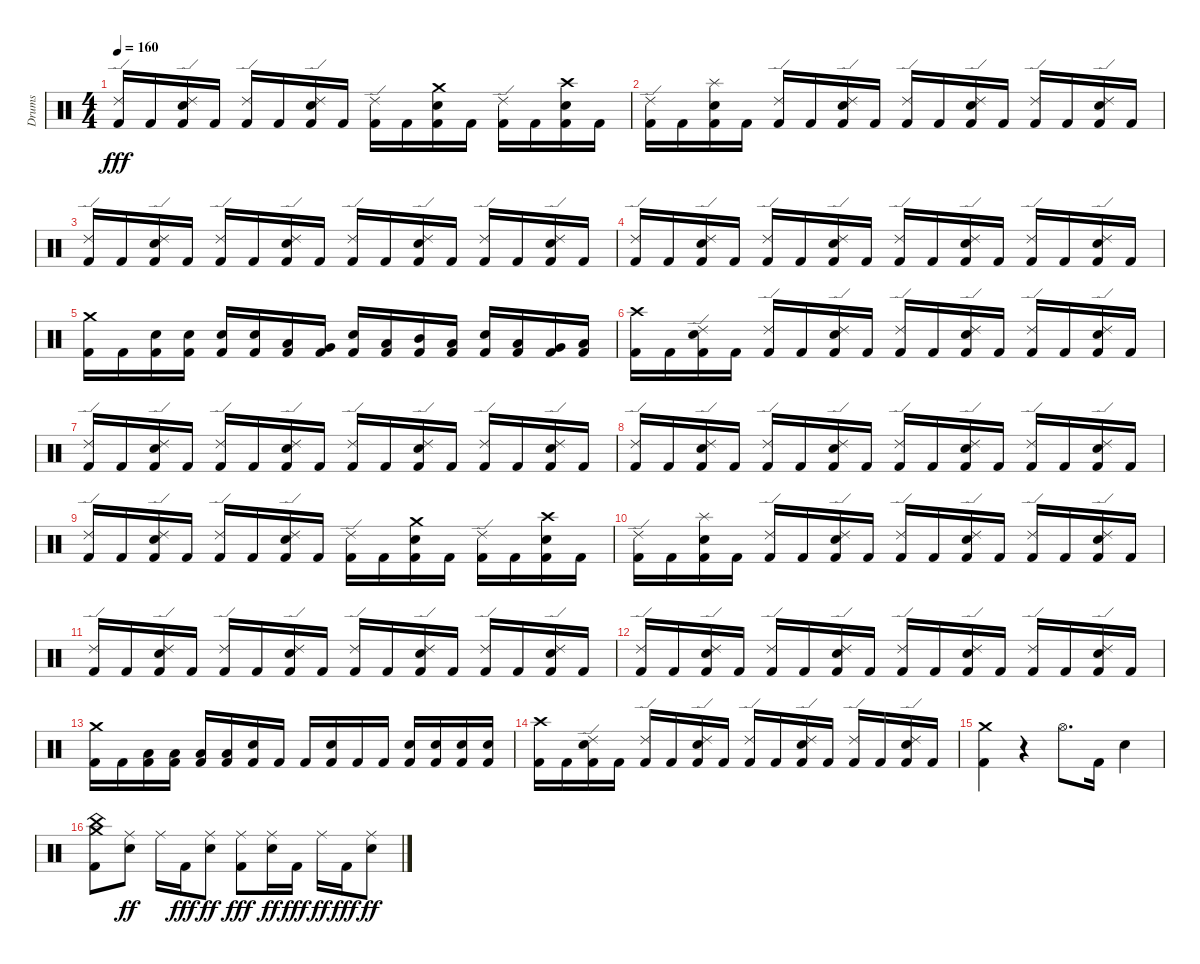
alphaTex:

\track ("Drums" "Drums") {instrument percussion}
\staff {score}
\articulation defaults
\ts (4 4)
\tempo 160
\clef neutral
\ks c
("Ride (edge) 2" "Kick (hit) 2").16{dy fff} "Kick (hit) 2".16 ("Ride (edge) 2" "Electric Snare (hit)" "Kick (hit) 2").16 "Kick (hit) 2".16 ("Ride (edge) 2" "Kick (hit) 2").16 "Kick (hit) 2".16 ("Ride (edge) 2" "Electric Snare (hit)" "Kick (hit) 2").16 "Kick (hit) 2".16 ("Ride (edge) 2" "Kick (hit) 2").16 "Kick (hit) 2".16 ("Crash medium (hit)" "Electric Snare (hit)" "Kick (hit) 2").16 "Kick (hit) 2".16 ("Ride (edge) 2" "Kick (hit) 2").16 "Kick (hit) 2".16 ("Crash high (hit)" "Electric Snare (hit)" "Kick (hit) 2").16 "Kick (hit) 2".16 |
("Ride (edge) 2" "Kick (hit) 2").16 "Kick (hit) 2".16 ("Splash (hit)" "Electric Snare (hit)" "Kick (hit) 2").16 "Kick (hit) 2".16 ("Ride (edge) 2" "Kick (hit) 2").16 "Kick (hit) 2".16 ("Ride (edge) 2" "Electric Snare (hit)" "Kick (hit) 2").16 "Kick (hit) 2".16 ("Ride (edge) 2" "Kick (hit) 2").16 "Kick (hit) 2".16 ("Ride (edge) 2" "Electric Snare (hit)" "Kick (hit) 2").16 "Kick (hit) 2".16 ("Ride (edge) 2" "Kick (hit) 2").16 "Kick (hit) 2".16 ("Ride (edge) 2" "Electric Snare (hit)" "Kick (hit) 2").16 "Kick (hit) 2".16 |
("Ride (edge) 2" "Kick (hit) 2").16 "Kick (hit) 2".16 ("Ride (edge) 2" "Electric Snare (hit)" "Kick (hit) 2").16 "Kick (hit) 2".16 ("Ride (edge) 2" "Kick (hit) 2").16 "Kick (hit) 2".16 ("Ride (edge) 2" "Electric Snare (hit)" "Kick (hit) 2").16 "Kick (hit) 2".16 ("Ride (edge) 2" "Kick (hit) 2").16 "Kick (hit) 2".16 ("Ride (edge) 2" "Electric Snare (hit)" "Kick (hit) 2").16 "Kick (hit) 2".16 ("Ride (edge) 2" "Kick (hit) 2").16 "Kick (hit) 2".16 ("Ride (edge) 2" "Electric Snare (hit)" "Kick (hit) 2").16 "Kick (hit) 2".16 |
("Ride (edge) 2" "Kick (hit) 2").16 "Kick (hit) 2".16 ("Ride (edge) 2" "Electric Snare (hit)" "Kick (hit) 2").16 "Kick (hit) 2".16 ("Ride (edge) 2" "Kick (hit) 2").16 "Kick (hit) 2".16 ("Ride (edge) 2" "Electric Snare (hit)" "Kick (hit) 2").16 "Kick (hit) 2".16 ("Ride (edge) 2" "Kick (hit) 2").16 "Kick (hit) 2".16 ("Ride (edge) 2" "Electric Snare (hit)" "Kick (hit) 2").16 "Kick (hit) 2".16 ("Ride (edge) 2" "Kick (hit) 2").16 "Kick (hit) 2".16 ("Ride (edge) 2" "Electric Snare (hit)" "Kick (hit) 2").16 "Kick (hit) 2".16 |
("Crash medium (hit)" "Kick (hit) 2").16 "Kick (hit) 2".16 ("Electric Snare (hit)" "Kick (hit) 2").16 ("Electric Snare (hit)" "Kick (hit) 2").16 ("Electric Snare (hit)" "Kick (hit) 2").16 ("Electric Snare (hit)" "Kick (hit) 2").16 ("Low Tom (hit)" "Kick (hit) 2").16 ("Very Low Tom (hit)" "Kick (hit) 2").16 ("Electric Snare (hit)" "Kick (hit) 2").16 ("Low Tom (hit)" "Kick (hit) 2").16 ("Mid Tom (hit)" "Kick (hit) 2").16 ("Low Tom (hit)" "Kick (hit) 2").16 ("Electric Snare (hit)" "Kick (hit) 2").16 ("Low Tom (hit)" "Kick (hit) 2").16 ("Very Low Tom (hit)" "Kick (hit) 2").16 ("Low Floor Tom (hit)" "Kick (hit) 2").16 |
("Crash high (hit)" "Kick (hit) 2").16 "Kick (hit) 2".16 ("Ride (edge) 2" "Electric Snare (hit)" "Kick (hit) 2").16 "Kick (hit) 2".16 ("Ride (edge) 2" "Kick (hit) 2").16 "Kick (hit) 2".16 ("Ride (edge) 2" "Electric Snare (hit)" "Kick (hit) 2").16 "Kick (hit) 2".16 ("Ride (edge) 2" "Kick (hit) 2").16 "Kick (hit) 2".16 ("Ride (edge) 2" "Electric Snare (hit)" "Kick (hit) 2").16 "Kick (hit) 2".16 ("Ride (edge) 2" "Kick (hit) 2").16 "Kick (hit) 2".16 ("Ride (edge) 2" "Electric Snare (hit)" "Kick (hit) 2").16 "Kick (hit) 2".16 |
("Ride (edge) 2" "Kick (hit) 2").16 "Kick (hit) 2".16 ("Ride (edge) 2" "Electric Snare (hit)" "Kick (hit) 2").16 "Kick (hit) 2".16 ("Ride (edge) 2" "Kick (hit) 2").16 "Kick (hit) 2".16 ("Ride (edge) 2" "Electric Snare (hit)" "Kick (hit) 2").16 "Kick (hit) 2".16 ("Ride (edge) 2" "Kick (hit) 2").16 "Kick (hit) 2".16 ("Ride (edge) 2" "Electric Snare (hit)" "Kick (hit) 2").16 "Kick (hit) 2".16 ("Ride (edge) 2" "Kick (hit) 2").16 "Kick (hit) 2".16 ("Ride (edge) 2" "Electric Snare (hit)" "Kick (hit) 2").16 "Kick (hit) 2".16 |
("Ride (edge) 2" "Kick (hit) 2").16 "Kick (hit) 2".16 ("Ride (edge) 2" "Electric Snare (hit)" "Kick (hit) 2").16 "Kick (hit) 2".16 ("Ride (edge) 2" "Kick (hit) 2").16 "Kick (hit) 2".16 ("Ride (edge) 2" "Electric Snare (hit)" "Kick (hit) 2").16 "Kick (hit) 2".16 ("Ride (edge) 2" "Kick (hit) 2").16 "Kick (hit) 2".16 ("Ride (edge) 2" "Electric Snare (hit)" "Kick (hit) 2").16 "Kick (hit) 2".16 ("Ride (edge) 2" "Kick (hit) 2").16 "Kick (hit) 2".16 ("Ride (edge) 2" "Electric Snare (hit)" "Kick (hit) 2").16 "Kick (hit) 2".16 |
("Ride (edge) 2" "Kick (hit) 2").16 "Kick (hit) 2".16 ("Ride (edge) 2" "Electric Snare (hit)" "Kick (hit) 2").16 "Kick (hit) 2".16 ("Ride (edge) 2" "Kick (hit) 2").16 "Kick (hit) 2".16 ("Ride (edge) 2" "Electric Snare (hit)" "Kick (hit) 2").16 "Kick (hit) 2".16 ("Ride (edge) 2" "Kick (hit) 2").16 "Kick (hit) 2".16 ("Crash medium (hit)" "Electric Snare (hit)" "Kick (hit) 2").16 "Kick (hit) 2".16 ("Ride (edge) 2" "Kick (hit) 2").16 "Kick (hit) 2".16 ("Crash high (hit)" "Electric Snare (hit)" "Kick (hit) 2").16 "Kick (hit) 2".16 |
("Ride (edge) 2" "Kick (hit) 2").16 "Kick (hit) 2".16 ("Splash (hit)" "Electric Snare (hit)" "Kick (hit) 2").16 "Kick (hit) 2".16 ("Ride (edge) 2" "Kick (hit) 2").16 "Kick (hit) 2".16 ("Ride (edge) 2" "Electric Snare (hit)" "Kick (hit) 2").16 "Kick (hit) 2".16 ("Ride (edge) 2" "Kick (hit) 2").16 "Kick (hit) 2".16 ("Ride (edge) 2" "Electric Snare (hit)" "Kick (hit) 2").16 "Kick (hit) 2".16 ("Ride (edge) 2" "Kick (hit) 2").16 "Kick (hit) 2".16 ("Ride (edge) 2" "Electric Snare (hit)" "Kick (hit) 2").16 "Kick (hit) 2".16 |
("Ride (edge) 2" "Kick (hit) 2").16 "Kick (hit) 2".16 ("Ride (edge) 2" "Electric Snare (hit)" "Kick (hit) 2").16 "Kick (hit) 2".16 ("Ride (edge) 2" "Kick (hit) 2").16 "Kick (hit) 2".16 ("Ride (edge) 2" "Electric Snare (hit)" "Kick (hit) 2").16 "Kick (hit) 2".16 ("Ride (edge) 2" "Kick (hit) 2").16 "Kick (hit) 2".16 ("Ride (edge) 2" "Electric Snare (hit)" "Kick (hit) 2").16 "Kick (hit) 2".16 ("Ride (edge) 2" "Kick (hit) 2").16 "Kick (hit) 2".16 ("Ride (edge) 2" "Electric Snare (hit)" "Kick (hit) 2").16 "Kick (hit) 2".16 |
("Ride (edge) 2" "Kick (hit) 2").16 "Kick (hit) 2".16 ("Ride (edge) 2" "Electric Snare (hit)" "Kick (hit) 2").16 "Kick (hit) 2".16 ("Ride (edge) 2" "Kick (hit) 2").16 "Kick (hit) 2".16 ("Ride (edge) 2" "Electric Snare (hit)" "Kick (hit) 2").16 "Kick (hit) 2".16 ("Ride (edge) 2" "Kick (hit) 2").16 "Kick (hit) 2".16 ("Ride (edge) 2" "Electric Snare (hit)" "Kick (hit) 2").16 "Kick (hit) 2".16 ("Ride (edge) 2" "Kick (hit) 2").16 "Kick (hit) 2".16 ("Ride (edge) 2" "Electric Snare (hit)" "Kick (hit) 2").16 "Kick (hit) 2".16 |
("Crash medium (hit)" "Kick (hit) 2").16 "Kick (hit) 2".16 ("Low Tom (hit)" "Kick (hit) 2").16 ("Low Tom (hit)" "Kick (hit) 2").16 ("Low Tom (hit)" "Kick (hit) 2").16 ("Low Tom (hit)" "Kick (hit) 2").16 ("Electric Snare (hit)" "Kick (hit) 2").16 "Kick (hit) 2".16 "Kick (hit) 2".16 ("Electric Snare (hit)" "Kick (hit) 2").16 "Kick (hit) 2".16 "Kick (hit) 2".16 ("Electric Snare (hit)" "Kick (hit) 2").16 ("Electric Snare (hit)" "Kick (hit) 2").16 ("Electric Snare (hit)" "Kick (hit) 2").16 ("Electric Snare (hit)" "Kick (hit) 2").16 |
("Crash high (hit)" "Kick (hit) 2").16 "Kick (hit) 2".16 ("Ride (edge) 2" "Electric Snare (hit)" "Kick (hit) 2").16 "Kick (hit) 2".16 ("Ride (edge) 2" "Kick (hit) 2").16 "Kick (hit) 2".16 ("Ride (edge) 2" "Electric Snare (hit)" "Kick (hit) 2").16 "Kick (hit) 2".16 ("Ride (edge) 2" "Kick (hit) 2").16 "Kick (hit) 2".16 ("Ride (edge) 2" "Electric Snare (hit)" "Kick (hit) 2").16 "Kick (hit) 2".16 ("Ride (edge) 2" "Kick (hit) 2").16 "Kick (hit) 2".16 ("Ride (edge) 2" "Electric Snare (hit)" "Kick (hit) 2").16 "Kick (hit) 2".16 |
("Crash medium (hit)" "Kick (hit) 2").4 r.4 "Hi-Hat (open)".8{d} "Kick (hit) 2".16 "Electric Snare (hit)".4 |
("China (hit)" "Crash medium (hit)" "Kick (hit) 2").8 ("Ride (middle)" "Electric Snare (hit)").8{dy ff} "Ride (middle)".16 "Kick (hit) 2".16{dy fff} ("Ride (middle)" "Electric Snare (hit)").8{dy ff} ("Ride (middle)" "Kick (hit) 2").8{dy fff} ("Ride (middle)" "Electric Snare (hit)").16{dy ff} "Kick (hit) 2".16{dy fff} "Ride (middle)".16{dy ff} "Kick (hit) 2".16{dy fff} ("Ride (middle)" "Electric Snare (hit)").8{dy ff}
